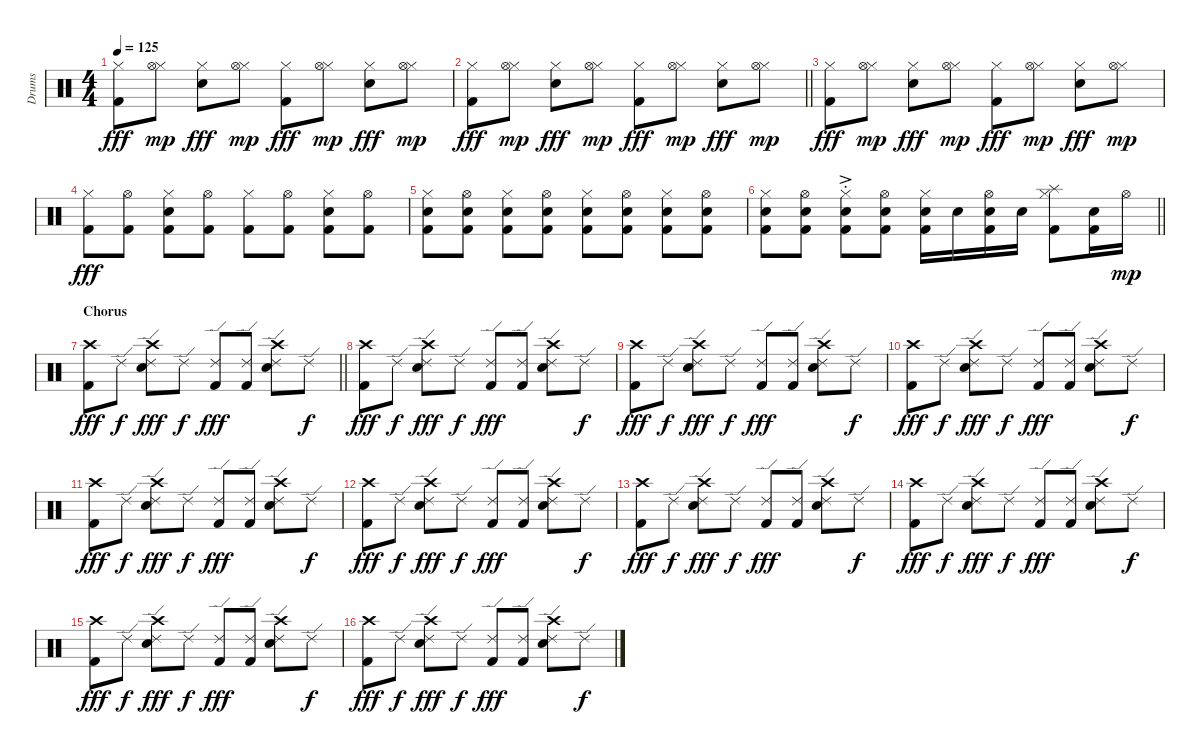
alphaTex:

\track ("Drums" "Drums") {instrument percussion}
\staff {score}
\articulation defaults
\ts (4 4)
\tempo 125
\clef neutral
\ks c
("Hi-Hat (closed)" "Kick (hit) 2").8{dy fff} ("Hi-Hat (closed)" "Hi-Hat (open)").8{dy mp} ("Hi-Hat (closed)" "Electric Snare (hit)").8{dy fff} ("Hi-Hat (closed)" "Hi-Hat (open)").8{dy mp} ("Hi-Hat (closed)" "Kick (hit) 2").8{dy fff} ("Hi-Hat (closed)" "Hi-Hat (open)").8{dy mp} ("Hi-Hat (closed)" "Electric Snare (hit)").8{dy fff} ("Hi-Hat (closed)" "Hi-Hat (open)").8{dy mp} |
\barLineRight lightlight
("Hi-Hat (closed)" "Kick (hit) 2").8{dy fff} ("Hi-Hat (closed)" "Hi-Hat (open)").8{dy mp} ("Hi-Hat (closed)" "Electric Snare (hit)").8{dy fff} ("Hi-Hat (closed)" "Hi-Hat (open)").8{dy mp} ("Hi-Hat (closed)" "Kick (hit) 2").8{dy fff} ("Hi-Hat (closed)" "Hi-Hat (open)").8{dy mp} ("Hi-Hat (closed)" "Electric Snare (hit)").8{dy fff} ("Hi-Hat (closed)" "Hi-Hat (open)").8{dy mp} |
("Hi-Hat (closed)" "Kick (hit) 2").8{dy fff} ("Hi-Hat (closed)" "Hi-Hat (open)").8{dy mp} ("Hi-Hat (closed)" "Electric Snare (hit)").8{dy fff} ("Hi-Hat (closed)" "Hi-Hat (open)").8{dy mp} ("Hi-Hat (closed)" "Kick (hit) 2").8{dy fff} ("Hi-Hat (closed)" "Hi-Hat (open)").8{dy mp} ("Hi-Hat (closed)" "Electric Snare (hit)").8{dy fff} ("Hi-Hat (closed)" "Hi-Hat (open)").8{dy mp} |
("Hi-Hat (closed)" "Kick (hit) 2").8{dy fff volume 6} ("Hi-Hat (open)" "Kick (hit) 2").8{volume 14} ("Hi-Hat (closed)" "Electric Snare (hit)" "Kick (hit) 2").8 ("Hi-Hat (open)" "Kick (hit) 2").8 ("Hi-Hat (closed)" "Kick (hit) 2").8 ("Hi-Hat (open)" "Kick (hit) 2").8 ("Electric Snare (hit)" "Hi-Hat (closed)" "Kick (hit) 2").8 ("Hi-Hat (open)" "Kick (hit) 2").8 |
("Hi-Hat (closed)" "Electric Snare (hit)" "Kick (hit) 2").8 ("Hi-Hat (open)" "Electric Snare (hit)" "Kick (hit) 2").8 ("Electric Snare (hit)" "Hi-Hat (closed)" "Kick (hit) 2").8 ("Hi-Hat (open)" "Electric Snare (hit)" "Kick (hit) 2").8 ("Electric Snare (hit)" "Hi-Hat (closed)" "Kick (hit) 2").8 ("Hi-Hat (open)" "Electric Snare (hit)" "Kick (hit) 2").8 ("Electric Snare (hit)" "Hi-Hat (closed)" "Kick (hit) 2").8 ("Hi-Hat (open)" "Electric Snare (hit)" "Kick (hit) 2").8 |
\barLineRight lightlight
("Electric Snare (hit)" "Hi-Hat (closed)" "Kick (hit) 2").8 ("Hi-Hat (open)" "Electric Snare (hit)" "Kick (hit) 2").8 ("Electric Snare (hit)"{ac st} "Hi-Hat (closed)" "Kick (hit) 2"{ac st}).8 ("Hi-Hat (open)" "Electric Snare (hit)" "Kick (hit) 2").8 ("Electric Snare (hit)" "Hi-Hat (closed)" "Kick (hit) 2").16 "Electric Snare (hit)".16 ("Electric Snare (hit)" "Hi-Hat (open)" "Kick (hit) 2").16 "Electric Snare (hit)".16 ("Splash (hit)" "Hi-Hat (closed)" "Kick (hit) 2").8 ("Electric Snare (hit)" "Kick (hit) 2").16 "Hi-Hat (open)".16{dy mp} |
\section ("" "Chorus")
\barLineRight lightlight
("Crash high (hit)" "Kick (hit) 2").8{dy fff} "Ride (edge) 2".8{dy f} ("Ride (edge) 2" "Crash high (hit)" "Electric Snare (hit)").8{dy fff} "Ride (edge) 2".8{dy f} ("Ride (edge) 2" "Kick (hit) 2").8{dy fff} ("Ride (edge) 2" "Kick (hit) 2").8 ("Ride (edge) 2" "Crash high (hit)" "Electric Snare (hit)").8 "Ride (edge) 2".8{dy f} |
\section ("" "")
("Crash high (hit)" "Kick (hit) 2").8{dy fff} "Ride (edge) 2".8{dy f} ("Ride (edge) 2" "Crash high (hit)" "Electric Snare (hit)").8{dy fff} "Ride (edge) 2".8{dy f} ("Ride (edge) 2" "Kick (hit) 2").8{dy fff} ("Ride (edge) 2" "Kick (hit) 2").8 ("Ride (edge) 2" "Crash high (hit)" "Electric Snare (hit)").8 "Ride (edge) 2".8{dy f} |
("Crash high (hit)" "Kick (hit) 2").8{dy fff} "Ride (edge) 2".8{dy f} ("Ride (edge) 2" "Crash high (hit)" "Electric Snare (hit)").8{dy fff} "Ride (edge) 2".8{dy f} ("Ride (edge) 2" "Kick (hit) 2").8{dy fff} ("Ride (edge) 2" "Kick (hit) 2").8 ("Ride (edge) 2" "Crash high (hit)" "Electric Snare (hit)").8 "Ride (edge) 2".8{dy f} |
("Crash high (hit)" "Kick (hit) 2").8{dy fff} "Ride (edge) 2".8{dy f} ("Ride (edge) 2" "Crash high (hit)" "Electric Snare (hit)").8{dy fff} "Ride (edge) 2".8{dy f} ("Ride (edge) 2" "Kick (hit) 2").8{dy fff} ("Ride (edge) 2" "Kick (hit) 2").8 ("Ride (edge) 2" "Crash high (hit)" "Electric Snare (hit)").8 "Ride (edge) 2".8{dy f} |
("Crash high (hit)" "Kick (hit) 2").8{dy fff} "Ride (edge) 2".8{dy f} ("Ride (edge) 2" "Crash high (hit)" "Electric Snare (hit)").8{dy fff} "Ride (edge) 2".8{dy f} ("Ride (edge) 2" "Kick (hit) 2").8{dy fff} ("Ride (edge) 2" "Kick (hit) 2").8 ("Ride (edge) 2" "Crash high (hit)" "Electric Snare (hit)").8 "Ride (edge) 2".8{dy f} |
("Crash high (hit)" "Kick (hit) 2").8{dy fff} "Ride (edge) 2".8{dy f} ("Ride (edge) 2" "Crash high (hit)" "Electric Snare (hit)").8{dy fff} "Ride (edge) 2".8{dy f} ("Ride (edge) 2" "Kick (hit) 2").8{dy fff} ("Ride (edge) 2" "Kick (hit) 2").8 ("Ride (edge) 2" "Crash high (hit)" "Electric Snare (hit)").8 "Ride (edge) 2".8{dy f} |
("Crash high (hit)" "Kick (hit) 2").8{dy fff} "Ride (edge) 2".8{dy f} ("Ride (edge) 2" "Crash high (hit)" "Electric Snare (hit)").8{dy fff} "Ride (edge) 2".8{dy f} ("Ride (edge) 2" "Kick (hit) 2").8{dy fff} ("Ride (edge) 2" "Kick (hit) 2").8 ("Ride (edge) 2" "Crash high (hit)" "Electric Snare (hit)").8 "Ride (edge) 2".8{dy f} |
("Crash high (hit)" "Kick (hit) 2").8{dy fff} "Ride (edge) 2".8{dy f} ("Ride (edge) 2" "Crash high (hit)" "Electric Snare (hit)").8{dy fff} "Ride (edge) 2".8{dy f} ("Ride (edge) 2" "Kick (hit) 2").8{dy fff} ("Ride (edge) 2" "Kick (hit) 2").8 ("Ride (edge) 2" "Crash high (hit)" "Electric Snare (hit)").8 "Ride (edge) 2".8{dy f} |
("Crash high (hit)" "Kick (hit) 2").8{dy fff} "Ride (edge) 2".8{dy f} ("Ride (edge) 2" "Crash high (hit)" "Electric Snare (hit)").8{dy fff} "Ride (edge) 2".8{dy f} ("Ride (edge) 2" "Kick (hit) 2").8{dy fff} ("Ride (edge) 2" "Kick (hit) 2").8 ("Ride (edge) 2" "Crash high (hit)" "Electric Snare (hit)").8 "Ride (edge) 2".8{dy f} |
("Crash high (hit)" "Kick (hit) 2").8{dy fff} "Ride (edge) 2".8{dy f} ("Ride (edge) 2" "Crash high (hit)" "Electric Snare (hit)").8{dy fff} "Ride (edge) 2".8{dy f} ("Ride (edge) 2" "Kick (hit) 2").8{dy fff} ("Ride (edge) 2" "Kick (hit) 2").8 ("Ride (edge) 2" "Crash high (hit)" "Electric Snare (hit)").8 "Ride (edge) 2".8{dy f}
